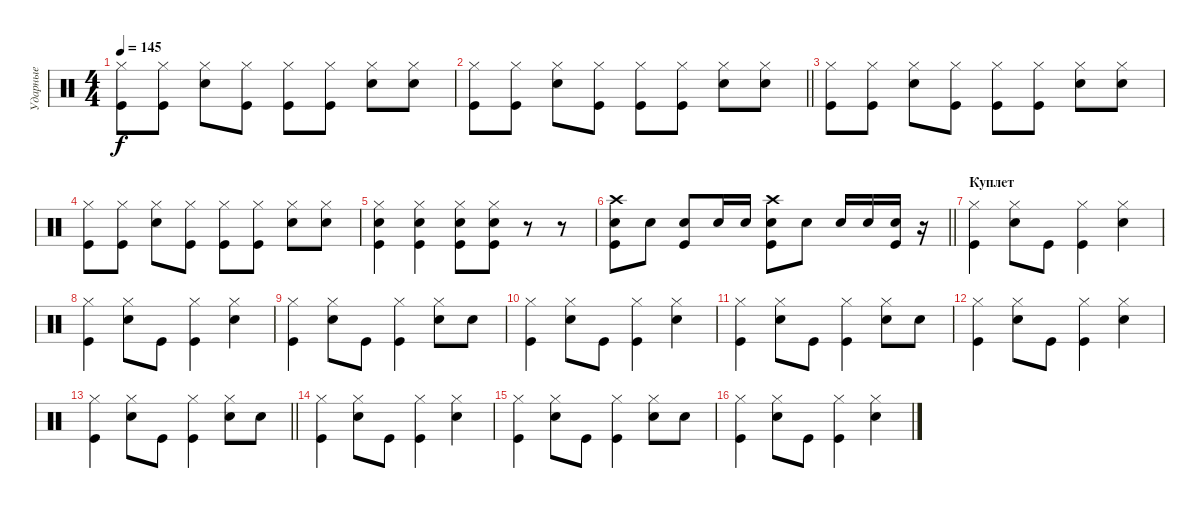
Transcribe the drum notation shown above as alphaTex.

\track ("Ударные" "Ударные") {instrument percussion bank 125}
\staff {score}
\articulation defaults
\ts (4 4)
\tempo 145
\clef neutral
\ks c
("Hi-Hat (closed)" "Kick (hit)").8{dy f} ("Hi-Hat (closed)" "Kick (hit)").8 ("Hi-Hat (closed)" "Snare (hit) 2").8 ("Hi-Hat (closed)" "Kick (hit)").8 ("Hi-Hat (closed)" "Kick (hit)").8 ("Hi-Hat (closed)" "Kick (hit)").8 ("Hi-Hat (closed)" "Snare (hit) 2").8 ("Hi-Hat (closed)" "Snare (hit) 2").8 |
\barLineRight lightlight
("Hi-Hat (closed)" "Kick (hit)").8 ("Hi-Hat (closed)" "Kick (hit)").8 ("Hi-Hat (closed)" "Snare (hit) 2").8 ("Hi-Hat (closed)" "Kick (hit)").8 ("Hi-Hat (closed)" "Kick (hit)").8 ("Hi-Hat (closed)" "Kick (hit)").8 ("Hi-Hat (closed)" "Snare (hit) 2").8 ("Hi-Hat (closed)" "Snare (hit) 2").8 |
("Hi-Hat (closed)" "Kick (hit)").8 ("Hi-Hat (closed)" "Kick (hit)").8 ("Hi-Hat (closed)" "Snare (hit) 2").8 ("Hi-Hat (closed)" "Kick (hit)").8 ("Hi-Hat (closed)" "Kick (hit)").8 ("Hi-Hat (closed)" "Kick (hit)").8 ("Hi-Hat (closed)" "Snare (hit) 2").8 ("Hi-Hat (closed)" "Snare (hit) 2").8 |
("Hi-Hat (closed)" "Kick (hit)").8 ("Hi-Hat (closed)" "Kick (hit)").8 ("Hi-Hat (closed)" "Snare (hit) 2").8 ("Hi-Hat (closed)" "Kick (hit)").8 ("Hi-Hat (closed)" "Kick (hit)").8 ("Hi-Hat (closed)" "Kick (hit)").8 ("Hi-Hat (closed)" "Snare (hit) 2").8 ("Hi-Hat (closed)" "Snare (hit) 2").8 |
("Hi-Hat (closed)" "Snare (hit) 2" "Kick (hit)").4 ("Hi-Hat (closed)" "Snare (hit) 2" "Kick (hit)").4 ("Hi-Hat (closed)" "Snare (hit) 2" "Kick (hit)").8 ("Hi-Hat (closed)" "Snare (hit) 2" "Kick (hit)").8 r.8 r.8 |
\barLineRight lightlight
("Crash high (hit)" "Snare (hit) 2" "Kick (hit)").8 "Snare (hit) 2".8 ("Snare (hit) 2" "Kick (hit)").8 "Snare (hit) 2".16 "Snare (hit) 2".16 ("Crash high (hit)" "Snare (hit) 2" "Kick (hit)").8 "Snare (hit) 2".8 "Snare (hit) 2".16 "Snare (hit) 2".16 ("Snare (hit) 2" "Kick (hit)").16 r.16 |
\section ("" "Куплет")
("Hi-Hat (closed)" "Kick (hit)").4 ("Hi-Hat (closed)" "Snare (hit) 2").8 "Kick (hit)".8 ("Hi-Hat (closed)" "Kick (hit)").4 ("Hi-Hat (closed)" "Snare (hit) 2").4 |
("Hi-Hat (closed)" "Kick (hit)").4 ("Hi-Hat (closed)" "Snare (hit) 2").8 "Kick (hit)".8 ("Hi-Hat (closed)" "Kick (hit)").4 ("Hi-Hat (closed)" "Snare (hit) 2").4 |
("Hi-Hat (closed)" "Kick (hit)").4 ("Hi-Hat (closed)" "Snare (hit) 2").8 "Kick (hit)".8 ("Hi-Hat (closed)" "Kick (hit)").4 ("Hi-Hat (closed)" "Snare (hit) 2").8 "Snare (hit) 2".8 |
("Hi-Hat (closed)" "Kick (hit)").4 ("Hi-Hat (closed)" "Snare (hit) 2").8 "Kick (hit)".8 ("Hi-Hat (closed)" "Kick (hit)").4 ("Hi-Hat (closed)" "Snare (hit) 2").4 |
("Hi-Hat (closed)" "Kick (hit)").4 ("Hi-Hat (closed)" "Snare (hit) 2").8 "Kick (hit)".8 ("Hi-Hat (closed)" "Kick (hit)").4 ("Hi-Hat (closed)" "Snare (hit) 2").8 "Snare (hit) 2".8 |
("Hi-Hat (closed)" "Kick (hit)").4 ("Hi-Hat (closed)" "Snare (hit) 2").8 "Kick (hit)".8 ("Hi-Hat (closed)" "Kick (hit)").4 ("Hi-Hat (closed)" "Snare (hit) 2").4 |
\barLineRight lightlight
("Hi-Hat (closed)" "Kick (hit)").4 ("Hi-Hat (closed)" "Snare (hit) 2").8 "Kick (hit)".8 ("Hi-Hat (closed)" "Kick (hit)").4 ("Hi-Hat (closed)" "Snare (hit) 2").8 "Snare (hit) 2".8 |
("Hi-Hat (closed)" "Kick (hit)").4 ("Hi-Hat (closed)" "Snare (hit) 2").8 "Kick (hit)".8 ("Hi-Hat (closed)" "Kick (hit)").4 ("Hi-Hat (closed)" "Snare (hit) 2").4 |
("Hi-Hat (closed)" "Kick (hit)").4 ("Hi-Hat (closed)" "Snare (hit) 2").8 "Kick (hit)".8 ("Hi-Hat (closed)" "Kick (hit)").4 ("Hi-Hat (closed)" "Snare (hit) 2").8 "Snare (hit) 2".8 |
("Hi-Hat (closed)" "Kick (hit)").4 ("Hi-Hat (closed)" "Snare (hit) 2").8 "Kick (hit)".8 ("Hi-Hat (closed)" "Kick (hit)").4 ("Hi-Hat (closed)" "Snare (hit) 2").4
